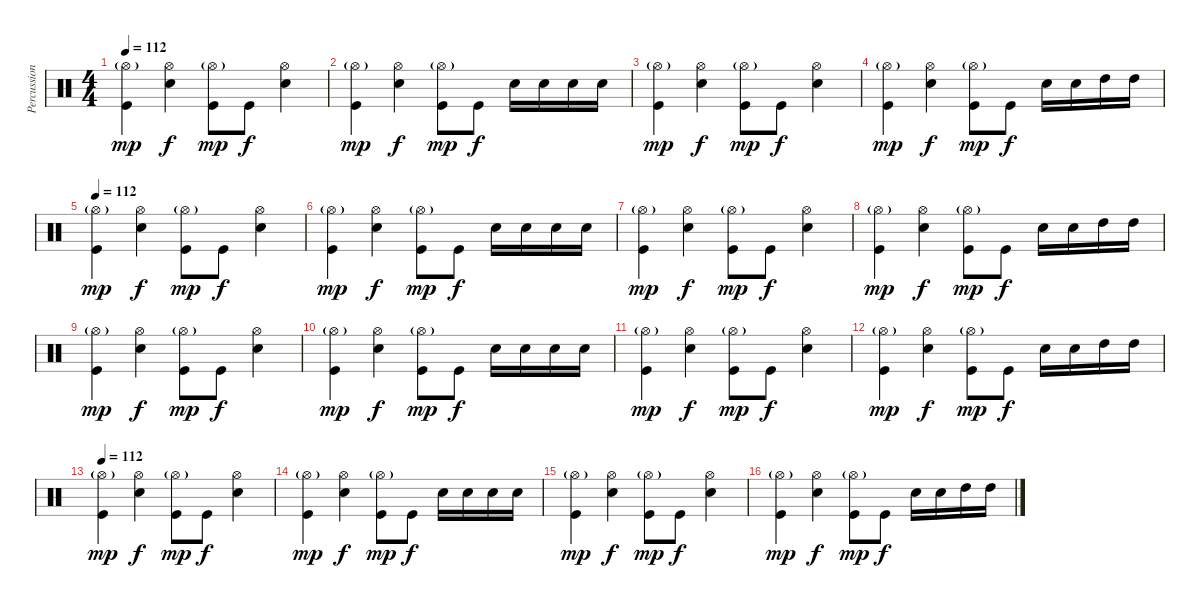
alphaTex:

\track ("Percussion" "Percussion") {instrument percussion}
\staff {score}
\articulation defaults
\ts (4 4)
\tempo 112
\clef neutral
\ks c
("Hi-Hat (open)"{g} "Kick (hit)").4{dy mp} ("Hi-Hat (open)" "Snare (hit) 2").4{dy f} ("Hi-Hat (open)"{g} "Kick (hit)").8{dy mp} "Kick (hit)".8{dy f} ("Hi-Hat (open)" "Snare (hit) 2").4 |
("Hi-Hat (open)"{g} "Kick (hit)").4{dy mp} ("Hi-Hat (open)" "Snare (hit) 2").4{dy f} ("Hi-Hat (open)"{g} "Kick (hit)").8{dy mp} "Kick (hit)".8{dy f} "Snare (hit) 2".16 "Snare (hit) 2".16 "Snare (hit) 2".16 "Snare (hit) 2".16 |
("Hi-Hat (open)"{g} "Kick (hit)").4{dy mp} ("Hi-Hat (open)" "Snare (hit) 2").4{dy f} ("Hi-Hat (open)"{g} "Kick (hit)").8{dy mp} "Kick (hit)".8{dy f} ("Hi-Hat (open)" "Snare (hit) 2").4 |
("Hi-Hat (open)"{g} "Kick (hit)").4{dy mp} ("Hi-Hat (open)" "Snare (hit) 2").4{dy f} ("Hi-Hat (open)"{g} "Kick (hit)").8{dy mp} "Kick (hit)".8{dy f} "Snare (hit) 2".16 "Snare (hit) 2".16 "High Tom (hit)".16 "High Tom (hit)".16 |
\tempo 112
("Hi-Hat (open)"{g} "Kick (hit)").4{dy mp} ("Hi-Hat (open)" "Snare (hit) 2").4{dy f} ("Hi-Hat (open)"{g} "Kick (hit)").8{dy mp} "Kick (hit)".8{dy f} ("Hi-Hat (open)" "Snare (hit) 2").4 |
("Hi-Hat (open)"{g} "Kick (hit)").4{dy mp} ("Hi-Hat (open)" "Snare (hit) 2").4{dy f} ("Hi-Hat (open)"{g} "Kick (hit)").8{dy mp} "Kick (hit)".8{dy f} "Snare (hit) 2".16 "Snare (hit) 2".16 "Snare (hit) 2".16 "Snare (hit) 2".16 |
("Hi-Hat (open)"{g} "Kick (hit)").4{dy mp} ("Hi-Hat (open)" "Snare (hit) 2").4{dy f} ("Hi-Hat (open)"{g} "Kick (hit)").8{dy mp} "Kick (hit)".8{dy f} ("Hi-Hat (open)" "Snare (hit) 2").4 |
("Hi-Hat (open)"{g} "Kick (hit)").4{dy mp} ("Hi-Hat (open)" "Snare (hit) 2").4{dy f} ("Hi-Hat (open)"{g} "Kick (hit)").8{dy mp} "Kick (hit)".8{dy f} "Snare (hit) 2".16 "Snare (hit) 2".16 "High Tom (hit)".16 "High Tom (hit)".16 |
("Hi-Hat (open)"{g} "Kick (hit)").4{dy mp} ("Hi-Hat (open)" "Snare (hit) 2").4{dy f} ("Hi-Hat (open)"{g} "Kick (hit)").8{dy mp} "Kick (hit)".8{dy f} ("Hi-Hat (open)" "Snare (hit) 2").4 |
("Hi-Hat (open)"{g} "Kick (hit)").4{dy mp} ("Hi-Hat (open)" "Snare (hit) 2").4{dy f} ("Hi-Hat (open)"{g} "Kick (hit)").8{dy mp} "Kick (hit)".8{dy f} "Snare (hit) 2".16 "Snare (hit) 2".16 "Snare (hit) 2".16 "Snare (hit) 2".16 |
("Hi-Hat (open)"{g} "Kick (hit)").4{dy mp} ("Hi-Hat (open)" "Snare (hit) 2").4{dy f} ("Hi-Hat (open)"{g} "Kick (hit)").8{dy mp} "Kick (hit)".8{dy f} ("Hi-Hat (open)" "Snare (hit) 2").4 |
("Hi-Hat (open)"{g} "Kick (hit)").4{dy mp} ("Hi-Hat (open)" "Snare (hit) 2").4{dy f} ("Hi-Hat (open)"{g} "Kick (hit)").8{dy mp} "Kick (hit)".8{dy f} "Snare (hit) 2".16 "Snare (hit) 2".16 "High Tom (hit)".16 "High Tom (hit)".16 |
\tempo 112
("Hi-Hat (open)"{g} "Kick (hit)").4{dy mp} ("Hi-Hat (open)" "Snare (hit) 2").4{dy f} ("Hi-Hat (open)"{g} "Kick (hit)").8{dy mp} "Kick (hit)".8{dy f} ("Hi-Hat (open)" "Snare (hit) 2").4 |
("Hi-Hat (open)"{g} "Kick (hit)").4{dy mp} ("Hi-Hat (open)" "Snare (hit) 2").4{dy f} ("Hi-Hat (open)"{g} "Kick (hit)").8{dy mp} "Kick (hit)".8{dy f} "Snare (hit) 2".16 "Snare (hit) 2".16 "Snare (hit) 2".16 "Snare (hit) 2".16 |
("Hi-Hat (open)"{g} "Kick (hit)").4{dy mp} ("Hi-Hat (open)" "Snare (hit) 2").4{dy f} ("Hi-Hat (open)"{g} "Kick (hit)").8{dy mp} "Kick (hit)".8{dy f} ("Hi-Hat (open)" "Snare (hit) 2").4 |
("Hi-Hat (open)"{g} "Kick (hit)").4{dy mp} ("Hi-Hat (open)" "Snare (hit) 2").4{dy f} ("Hi-Hat (open)"{g} "Kick (hit)").8{dy mp} "Kick (hit)".8{dy f} "Snare (hit) 2".16 "Snare (hit) 2".16 "High Tom (hit)".16 "High Tom (hit)".16
